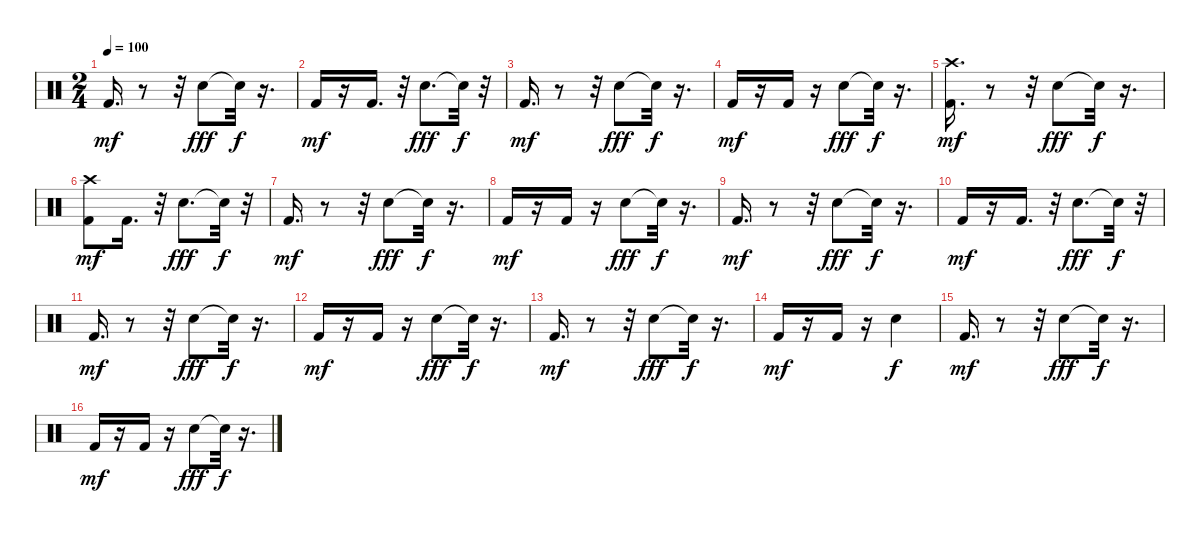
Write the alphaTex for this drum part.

\track "" {instrument percussion}
\staff {score}
\articulation defaults
\ts (2 4)
\tempo 100
\clef neutral
\ks c "Kick (hit) 2".16{d dy mf}
r.8 r.32 "Snare (hit) 2".8{dy fff} "Snare (hit)"{t}.32{dy f} r.16{d} |
"Kick (hit) 2".16{dy mf} r.16 "Kick (hit) 2".16{d} r.32 "Snare (hit) 2".8{d dy fff} "Snare (hit)"{t}.32{dy f} r.32 |
"Kick (hit) 2".16{d dy mf} r.8 r.32 "Snare (hit) 2".8{dy fff} "Snare (hit)"{t}.32{dy f} r.16{d} |
"Kick (hit) 2".16{dy mf} r.16 "Kick (hit) 2".16 r.16 "Snare (hit) 2".8{dy fff} "Snare (hit)"{t}.32{dy f} r.16{d} |
("Crash high (hit)" "Kick (hit) 2").16{d dy mf} r.8 r.32 "Snare (hit) 2".8{dy fff} "Snare (hit)"{t}.32{dy f} r.16{d} |
("Crash high (hit)" "Kick (hit) 2").8{dy mf} "Kick (hit) 2".16{d} r.32 "Snare (hit) 2".8{d dy fff} "Snare (hit)"{t}.32{dy f} r.32 |
"Kick (hit) 2".16{d dy mf} r.8 r.32 "Snare (hit) 2".8{dy fff} "Snare (hit)"{t}.32{dy f} r.16{d} |
"Kick (hit) 2".16{dy mf} r.16 "Kick (hit) 2".16 r.16 "Snare (hit) 2".8{dy fff} "Snare (hit)"{t}.32{dy f} r.16{d} |
"Kick (hit) 2".16{d dy mf} r.8 r.32 "Snare (hit) 2".8{dy fff} "Snare (hit)"{t}.32{dy f} r.16{d} |
"Kick (hit) 2".16{dy mf} r.16 "Kick (hit) 2".16{d} r.32 "Snare (hit) 2".8{d dy fff} "Snare (hit)"{t}.32{dy f} r.32 |
"Kick (hit) 2".16{d dy mf} r.8 r.32 "Snare (hit) 2".8{dy fff} "Snare (hit)"{t}.32{dy f} r.16{d} |
"Kick (hit) 2".16{dy mf} r.16 "Kick (hit) 2".16 r.16 "Snare (hit) 2".8{dy fff} "Snare (hit)"{t}.32{dy f} r.16{d} |
"Kick (hit) 2".16{d dy mf} r.8 r.32 "Snare (hit) 2".8{dy fff} "Snare (hit)"{t}.32{dy f} r.16{d} |
"Kick (hit) 2".16{dy mf} r.16 "Kick (hit) 2".16 r.16 "Snare (hit) 2".4{dy f} |
"Kick (hit) 2".16{d dy mf} r.8 r.32 "Snare (hit) 2".8{dy fff} "Snare (hit)"{t}.32{dy f} r.16{d} |
"Kick (hit) 2".16{dy mf} r.16 "Kick (hit) 2".16 r.16 "Snare (hit) 2".8{dy fff} "Snare (hit)"{t}.32{dy f} r.16{d}
